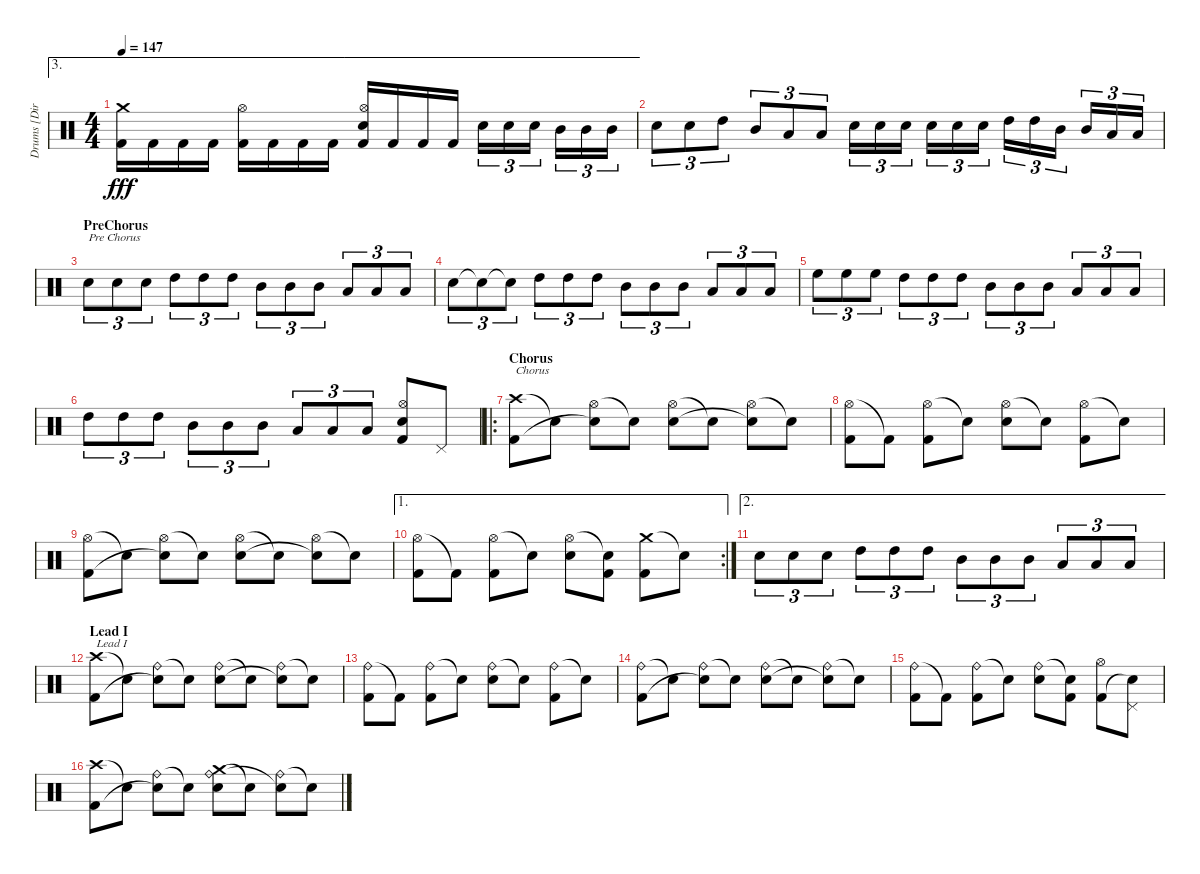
\track ("Drums [Dirge Rep]" "Drums [Dir") {instrument percussion}
\staff {score}
\articulation defaults
\ae 3
\ts (4 4)
\tempo 147
\clef neutral
\ks c
("Crash medium (hit)" "Kick (hit) 2").16{dy fff} "Kick (hit) 2".16 "Kick (hit) 2".16 "Kick (hit) 2".16 ("Hi-Hat (open)" "Kick (hit) 2").16 "Kick (hit) 2".16 "Kick (hit) 2".16 "Kick (hit) 2".16 ("Hi-Hat (open)" "Electric Snare (hit)" "Kick (hit) 2").16 "Kick (hit) 2".16 "Kick (hit) 2".16 "Kick (hit) 2".16 "Electric Snare (hit)".16{tu (3 2)} "Electric Snare (hit)".16{tu (3 2)} "Electric Snare (hit)".16{tu (3 2)} "Mid Tom (hit)".16{tu (3 2)} "Mid Tom (hit)".16{tu (3 2)} "Mid Tom (hit)".16{tu (3 2)} |
"Electric Snare (hit)".8{tu (3 2)} "Electric Snare (hit)".8{tu (3 2)} "High Tom (hit)".8{tu (3 2)} "Mid Tom (hit)".8{tu (3 2)} "Low Tom (hit)".8{tu (3 2)} "Low Tom (hit)".8{tu (3 2)} "Electric Snare (hit)".16{tu (3 2)} "Electric Snare (hit)".16{tu (3 2)} "Electric Snare (hit)".16{tu (3 2)} "Electric Snare (hit)".16{tu (3 2)} "Electric Snare (hit)".16{tu (3 2)} "Electric Snare (hit)".16{tu (3 2)} "High Tom (hit)".16{tu (3 2)} "High Tom (hit)".16{tu (3 2)} "Mid Tom (hit)".16{tu (3 2)} "Mid Tom (hit)".16{tu (3 2)} "Low Tom (hit)".16{tu (3 2)} "Low Tom (hit)".16{tu (3 2)} |
\section ("" "PreChorus")
"Electric Snare (hit)".8{tu (3 2) txt "Pre Chorus"} "Electric Snare (hit)".8{tu (3 2)} "Electric Snare (hit)".8{tu (3 2)} "High Tom (hit)".8{tu (3 2)} "High Tom (hit)".8{tu (3 2)} "High Tom (hit)".8{tu (3 2)} "Mid Tom (hit)".8{tu (3 2)} "Mid Tom (hit)".8{tu (3 2)} "Mid Tom (hit)".8{tu (3 2)} "Low Tom (hit)".8{tu (3 2)} "Low Tom (hit)".8{tu (3 2)} "Low Tom (hit)".8{tu (3 2)} |
"Electric Snare (hit)".8{tu (3 2)} "Snare (hit)"{t}.8{tu (3 2)} "Snare (hit)"{t}.8{tu (3 2)} "High Tom (hit)".8{tu (3 2)} "High Tom (hit)".8{tu (3 2)} "High Tom (hit)".8{tu (3 2)} "Mid Tom (hit)".8{tu (3 2)} "Mid Tom (hit)".8{tu (3 2)} "Mid Tom (hit)".8{tu (3 2)} "Low Tom (hit)".8{tu (3 2)} "Low Tom (hit)".8{tu (3 2)} "Low Tom (hit)".8{tu (3 2)} |
"High Floor Tom (hit)".8{tu (3 2)} "High Floor Tom (hit)".8{tu (3 2)} "High Floor Tom (hit)".8{tu (3 2)} "High Tom (hit)".8{tu (3 2)} "High Tom (hit)".8{tu (3 2)} "High Tom (hit)".8{tu (3 2)} "Mid Tom (hit)".8{tu (3 2)} "Mid Tom (hit)".8{tu (3 2)} "Mid Tom (hit)".8{tu (3 2)} "Low Tom (hit)".8{tu (3 2)} "Low Tom (hit)".8{tu (3 2)} "Low Tom (hit)".8{tu (3 2)} |
"High Tom (hit)".8{tu (3 2)} "High Tom (hit)".8{tu (3 2)} "High Tom (hit)".8{tu (3 2)} "Mid Tom (hit)".8{tu (3 2)} "Mid Tom (hit)".8{tu (3 2)} "Mid Tom (hit)".8{tu (3 2)} "Low Tom (hit)".8{tu (3 2)} "Low Tom (hit)".8{tu (3 2)} "Low Tom (hit)".8{tu (3 2)} ("Hi-Hat (open)" "Electric Snare (hit)" "Kick (hit) 2").8 "Pedal Hi-Hat (hit)".8 |
\ro
\section ("" "Chorus")
("Crash high (hit)" "Kick (hit) 2").8{txt "Chorus"} "Snare (hit)"{t}.8 ("Hi-Hat (open)" "Snare (hit)"{t}).8 "Snare (hit)"{t}.8 ("Hi-Hat (open)" "Electric Snare (hit)").8 "Snare (hit)"{t}.8 ("Hi-Hat (open)" "Snare (hit)"{t}).8 "Snare (hit)"{t}.8 |
("Hi-Hat (open)" "Kick (hit) 2").8 "Kick (hit) 2"{t}.8 ("Hi-Hat (open)" "Kick (hit) 2").8 "Snare (hit)"{t}.8 ("Hi-Hat (open)" "Electric Snare (hit)").8 "Snare (hit)"{t}.8 ("Hi-Hat (open)" "Kick (hit) 2").8 "Snare (hit)"{t}.8 |
("Hi-Hat (open)" "Kick (hit) 2").8 "Snare (hit)"{t}.8 ("Hi-Hat (open)" "Snare (hit)"{t}).8 "Snare (hit)"{t}.8 ("Hi-Hat (open)" "Electric Snare (hit)").8 "Snare (hit)"{t}.8 ("Hi-Hat (open)" "Snare (hit)"{t}).8 "Snare (hit)"{t}.8 |
\ae 1
\rc 2
("Hi-Hat (open)" "Kick (hit) 2").8 "Kick (hit) 2"{t}.8 ("Hi-Hat (open)" "Kick (hit) 2").8 "Snare (hit)"{t}.8 ("Hi-Hat (open)" "Electric Snare (hit)").8 ("Snare (hit)"{t} "Kick (hit) 2").8 ("Crash medium (hit)" "Kick (hit) 2").8 "Snare (hit)"{t}.8 |
\ae 2 "Electric Snare (hit)".8{tu (3 2)} "Electric Snare (hit)".8{tu (3 2)} "Electric Snare (hit)".8{tu (3 2)} "High Tom (hit)".8{tu (3 2)} "High Tom (hit)".8{tu (3 2)} "High Tom (hit)".8{tu (3 2)} "Mid Tom (hit)".8{tu (3 2)} "Mid Tom (hit)".8{tu (3 2)} "Mid Tom (hit)".8{tu (3 2)} "Low Tom (hit)".8{tu (3 2)} "Low Tom (hit)".8{tu (3 2)} "Low Tom (hit)".8{tu (3 2)}
|
\section ("" "Lead I")
("Crash high (hit)" "Kick (hit) 2").8{txt "Lead I"} "Snare (hit)"{t}.8 ("Ride (bell)" "Snare (hit)"{t}).8 "Snare (hit)"{t}.8 ("Ride (bell)" "Electric Snare (hit)").8 "Snare (hit)"{t}.8 ("Ride (bell)" "Snare (hit)"{t}).8 "Snare (hit)"{t}.8 |
("Ride (bell)" "Kick (hit) 2").8 "Kick (hit) 2"{t}.8 ("Ride (bell)" "Kick (hit) 2").8 "Snare (hit)"{t}.8 ("Ride (bell)" "Electric Snare (hit)").8 "Snare (hit)"{t}.8 ("Ride (bell)" "Kick (hit) 2").8 "Snare (hit)"{t}.8 |
("Ride (bell)" "Kick (hit) 2").8 "Snare (hit)"{t}.8 ("Ride (bell)" "Snare (hit)"{t}).8 "Snare (hit)"{t}.8 ("Ride (bell)" "Electric Snare (hit)").8 "Snare (hit)"{t}.8 ("Ride (bell)" "Snare (hit)"{t}).8 "Snare (hit)"{t}.8 |
("Ride (bell)" "Kick (hit) 2").8 "Kick (hit) 2"{t}.8 ("Ride (bell)" "Kick (hit) 2").8 "Snare (hit)"{t}.8 ("Ride (bell)" "Electric Snare (hit)").8 ("Snare (hit)"{t} "Kick (hit) 2").8 ("Hi-Hat (open)" "Kick (hit) 2").8 ("Pedal Hi-Hat (hit)" "Snare (hit)"{t}).8 |
("Crash high (hit)" "Kick (hit) 2").8 "Snare (hit)"{t}.8 ("Ride (bell)" "Snare (hit)"{t}).8 "Snare (hit)"{t}.8 ("Crash medium (hit)" "Ride (bell)" "Electric Snare (hit)").8 "Snare (hit)"{t}.8 ("Ride (bell)" "Snare (hit)"{t}).8 "Snare (hit)"{t}.8
